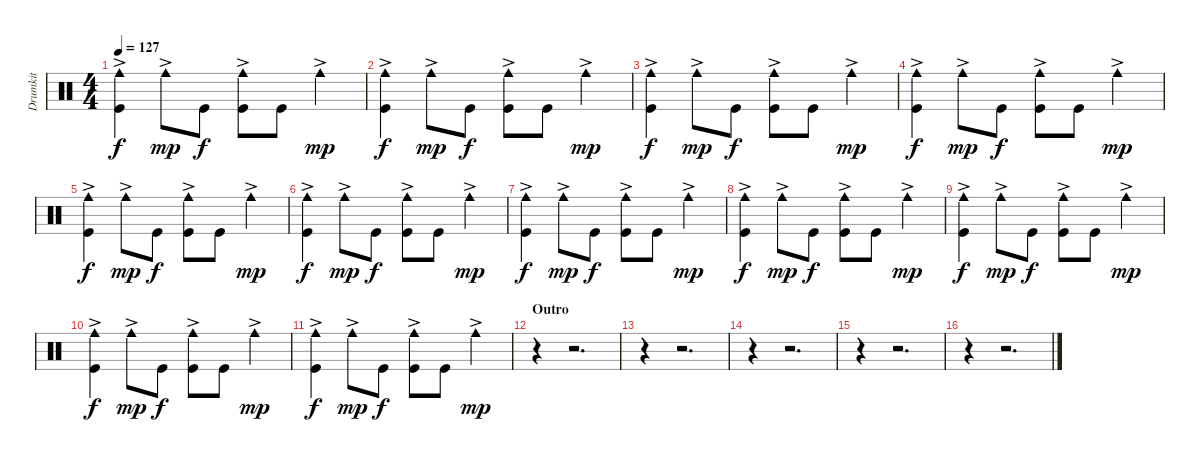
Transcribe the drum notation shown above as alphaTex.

\track ("Drumkit" "Drumkit") {instrument percussion}
\staff {score}
\articulation defaults
\ts (4 4)
\tempo 127
\clef neutral
\ks c
("Kick (hit)" "Cowbell medium (hit)"{ac}).4{dy f} "Cowbell medium (hit)"{ac}.8{dy mp} "Kick (hit)".8{dy f} ("Kick (hit)" "Cowbell medium (hit)"{ac}).8 "Kick (hit)".8 "Cowbell medium (hit)"{ac}.4{dy mp} |
("Kick (hit)" "Cowbell medium (hit)"{ac}).4{dy f} "Cowbell medium (hit)"{ac}.8{dy mp} "Kick (hit)".8{dy f} ("Kick (hit)" "Cowbell medium (hit)"{ac}).8 "Kick (hit)".8 "Cowbell medium (hit)"{ac}.4{dy mp} |
("Kick (hit)" "Cowbell medium (hit)"{ac}).4{dy f} "Cowbell medium (hit)"{ac}.8{dy mp} "Kick (hit)".8{dy f} ("Kick (hit)" "Cowbell medium (hit)"{ac}).8 "Kick (hit)".8 "Cowbell medium (hit)"{ac}.4{dy mp} |
("Kick (hit)" "Cowbell medium (hit)"{ac}).4{dy f} "Cowbell medium (hit)"{ac}.8{dy mp} "Kick (hit)".8{dy f} ("Kick (hit)" "Cowbell medium (hit)"{ac}).8 "Kick (hit)".8 "Cowbell medium (hit)"{ac}.4{dy mp} |
("Kick (hit)" "Cowbell medium (hit)"{ac}).4{dy f} "Cowbell medium (hit)"{ac}.8{dy mp} "Kick (hit)".8{dy f} ("Kick (hit)" "Cowbell medium (hit)"{ac}).8 "Kick (hit)".8 "Cowbell medium (hit)"{ac}.4{dy mp} |
("Kick (hit)" "Cowbell medium (hit)"{ac}).4{dy f} "Cowbell medium (hit)"{ac}.8{dy mp} "Kick (hit)".8{dy f} ("Kick (hit)" "Cowbell medium (hit)"{ac}).8 "Kick (hit)".8 "Cowbell medium (hit)"{ac}.4{dy mp} |
("Kick (hit)" "Cowbell medium (hit)"{ac}).4{dy f} "Cowbell medium (hit)"{ac}.8{dy mp} "Kick (hit)".8{dy f} ("Kick (hit)" "Cowbell medium (hit)"{ac}).8 "Kick (hit)".8 "Cowbell medium (hit)"{ac}.4{dy mp} |
("Kick (hit)" "Cowbell medium (hit)"{ac}).4{dy f} "Cowbell medium (hit)"{ac}.8{dy mp} "Kick (hit)".8{dy f} ("Kick (hit)" "Cowbell medium (hit)"{ac}).8 "Kick (hit)".8 "Cowbell medium (hit)"{ac}.4{dy mp} |
("Kick (hit)" "Cowbell medium (hit)"{ac}).4{dy f} "Cowbell medium (hit)"{ac}.8{dy mp} "Kick (hit)".8{dy f} ("Kick (hit)" "Cowbell medium (hit)"{ac}).8 "Kick (hit)".8 "Cowbell medium (hit)"{ac}.4{dy mp} |
("Kick (hit)" "Cowbell medium (hit)"{ac}).4{dy f} "Cowbell medium (hit)"{ac}.8{dy mp} "Kick (hit)".8{dy f} ("Kick (hit)" "Cowbell medium (hit)"{ac}).8 "Kick (hit)".8 "Cowbell medium (hit)"{ac}.4{dy mp} |
("Kick (hit)" "Cowbell medium (hit)"{ac}).4{dy f} "Cowbell medium (hit)"{ac}.8{dy mp} "Kick (hit)".8{dy f} ("Kick (hit)" "Cowbell medium (hit)"{ac}).8 "Kick (hit)".8 "Cowbell medium (hit)"{ac}.4{dy mp} |
\section ("" "Outro")
r.4 r.2{d} |
r.4 r.2{d} |
r.4 r.2{d} |
r.4 r.2{d} |
r.4 r.2{d}
